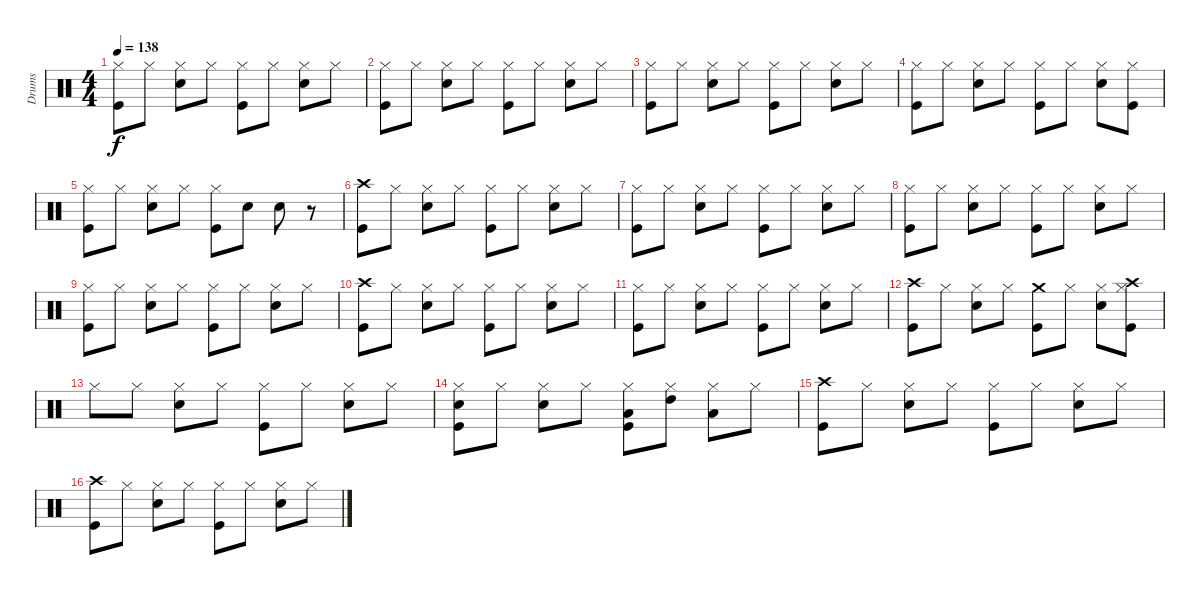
\track ("Drums" "Drums") {instrument percussion}
\staff {score}
\articulation defaults
\ts (4 4)
\tempo 138
\clef neutral
\ks c
("Kick (hit)" "Hi-Hat (closed)").8{dy f} "Hi-Hat (closed)".8 ("Electric Snare (hit)" "Hi-Hat (closed)").8 "Hi-Hat (closed)".8 ("Kick (hit)" "Hi-Hat (closed)").8 "Hi-Hat (closed)".8 ("Electric Snare (hit)" "Hi-Hat (closed)").8 "Hi-Hat (closed)".8 |
("Kick (hit)" "Hi-Hat (closed)").8 "Hi-Hat (closed)".8 ("Electric Snare (hit)" "Hi-Hat (closed)").8 "Hi-Hat (closed)".8 ("Kick (hit)" "Hi-Hat (closed)").8 "Hi-Hat (closed)".8 ("Electric Snare (hit)" "Hi-Hat (closed)").8 "Hi-Hat (closed)".8 |
("Kick (hit)" "Hi-Hat (closed)").8 "Hi-Hat (closed)".8 ("Electric Snare (hit)" "Hi-Hat (closed)").8 "Hi-Hat (closed)".8 ("Kick (hit)" "Hi-Hat (closed)").8 "Hi-Hat (closed)".8 ("Electric Snare (hit)" "Hi-Hat (closed)").8 "Hi-Hat (closed)".8 |
("Kick (hit)" "Hi-Hat (closed)").8 "Hi-Hat (closed)".8 ("Electric Snare (hit)" "Hi-Hat (closed)").8 "Hi-Hat (closed)".8 ("Kick (hit)" "Hi-Hat (closed)").8 "Hi-Hat (closed)".8 ("Electric Snare (hit)" "Hi-Hat (closed)").8 ("Kick (hit)" "Hi-Hat (closed)").8 |
("Kick (hit)" "Hi-Hat (closed)").8 "Hi-Hat (closed)".8 ("Electric Snare (hit)" "Hi-Hat (closed)").8 "Hi-Hat (closed)".8 ("Kick (hit)" "Hi-Hat (closed)").8 "Electric Snare (hit)".8 "Electric Snare (hit)".8 r.8 |
("Kick (hit)" "Crash high (hit)").8 "Hi-Hat (closed)".8 ("Electric Snare (hit)" "Hi-Hat (closed)").8 "Hi-Hat (closed)".8 ("Kick (hit)" "Hi-Hat (closed)").8 "Hi-Hat (closed)".8 ("Electric Snare (hit)" "Hi-Hat (closed)").8 "Hi-Hat (closed)".8 |
("Kick (hit)" "Hi-Hat (closed)").8 "Hi-Hat (closed)".8 ("Electric Snare (hit)" "Hi-Hat (closed)").8 "Hi-Hat (closed)".8 ("Kick (hit)" "Hi-Hat (closed)").8 "Hi-Hat (closed)".8 ("Electric Snare (hit)" "Hi-Hat (closed)").8 "Hi-Hat (closed)".8 |
("Kick (hit)" "Hi-Hat (closed)").8 "Hi-Hat (closed)".8 ("Electric Snare (hit)" "Hi-Hat (closed)").8 "Hi-Hat (closed)".8 ("Kick (hit)" "Hi-Hat (closed)").8 "Hi-Hat (closed)".8 ("Electric Snare (hit)" "Hi-Hat (closed)").8 "Hi-Hat (closed)".8 |
("Kick (hit)" "Hi-Hat (closed)").8 "Hi-Hat (closed)".8 ("Electric Snare (hit)" "Hi-Hat (closed)").8 "Hi-Hat (closed)".8 ("Kick (hit)" "Hi-Hat (closed)").8 "Hi-Hat (closed)".8 ("Electric Snare (hit)" "Hi-Hat (closed)").8 "Hi-Hat (closed)".8 |
("Kick (hit)" "Crash high (hit)").8 "Hi-Hat (closed)".8 ("Electric Snare (hit)" "Hi-Hat (closed)").8 "Hi-Hat (closed)".8 ("Kick (hit)" "Hi-Hat (closed)").8 "Hi-Hat (closed)".8 ("Electric Snare (hit)" "Hi-Hat (closed)").8 "Hi-Hat (closed)".8 |
("Kick (hit)" "Hi-Hat (closed)").8 "Hi-Hat (closed)".8 ("Electric Snare (hit)" "Hi-Hat (closed)").8 "Hi-Hat (closed)".8 ("Kick (hit)" "Hi-Hat (closed)").8 "Hi-Hat (closed)".8 ("Electric Snare (hit)" "Hi-Hat (closed)").8 "Hi-Hat (closed)".8 |
("Kick (hit)" "Crash high (hit)").8 "Hi-Hat (closed)".8 ("Electric Snare (hit)" "Hi-Hat (closed)").8 "Hi-Hat (closed)".8 ("Kick (hit)" "Crash medium (hit)").8 "Hi-Hat (closed)".8 ("Electric Snare (hit)" "Hi-Hat (closed)").8 ("Kick (hit)" "Hi-Hat (closed)" "Crash high (hit)").8 |
"Hi-Hat (closed)".8 "Hi-Hat (closed)".8 ("Electric Snare (hit)" "Hi-Hat (closed)").8 "Hi-Hat (closed)".8 ("Kick (hit)" "Hi-Hat (closed)").8 "Hi-Hat (closed)".8 ("Electric Snare (hit)" "Hi-Hat (closed)").8 "Hi-Hat (closed)".8 |
("Kick (hit)" "Electric Snare (hit)" "Hi-Hat (closed)").8 "Hi-Hat (closed)".8 ("Electric Snare (hit)" "Hi-Hat (closed)").8 "Hi-Hat (closed)".8 ("Kick (hit)" "Hi-Hat (closed)" "Low Tom (hit)").8 ("Hi-Hat (closed)" "High Tom (hit)").8 ("Hi-Hat (closed)" "Low Floor Tom (hit)").8 "Hi-Hat (closed)".8 |
("Kick (hit)" "Crash high (hit)").8 "Hi-Hat (closed)".8 ("Electric Snare (hit)" "Hi-Hat (closed)").8 "Hi-Hat (closed)".8 ("Kick (hit)" "Hi-Hat (closed)").8 "Hi-Hat (closed)".8 ("Electric Snare (hit)" "Hi-Hat (closed)").8 "Hi-Hat (closed)".8 |
("Kick (hit)" "Crash high (hit)").8 "Hi-Hat (closed)".8 ("Electric Snare (hit)" "Hi-Hat (closed)").8 "Hi-Hat (closed)".8 ("Kick (hit)" "Hi-Hat (closed)").8 "Hi-Hat (closed)".8 ("Electric Snare (hit)" "Hi-Hat (closed)").8 "Hi-Hat (closed)".8
